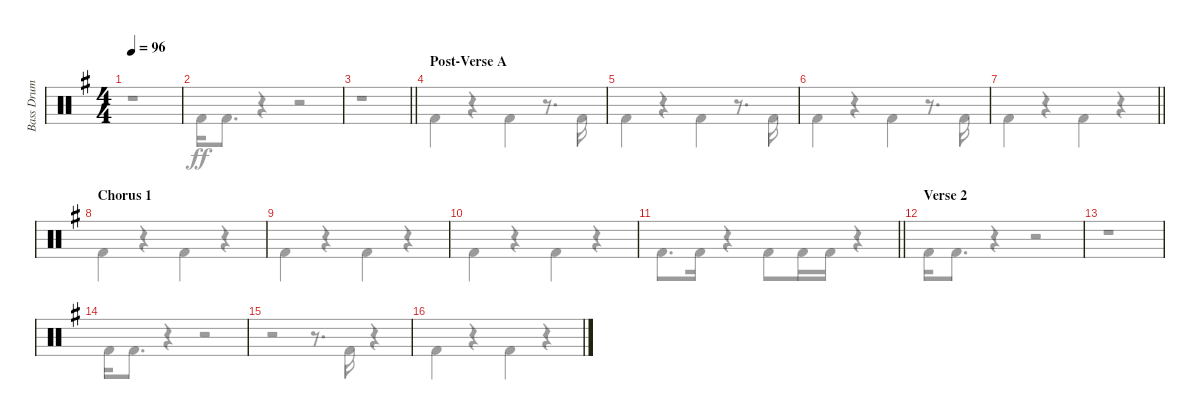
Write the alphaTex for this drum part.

\track ("Bass Drum" "Bass Drum") {instrument percussion}
\staff {score}
\articulation defaults
\voice
\ts (4 4)
\tempo 96
\clef neutral
\ks g
|
|
\barLineRight lightlight
|
\section ("" "Post-Verse A")
|
|
|
\barLineRight lightlight
|
\section ("" "Chorus 1")
|
|
|
\barLineRight lightlight
|
\section ("" "Verse 2")
|
|
|
|
\voice
\clef neutral
\ks g
r.1{dy ff} |
"Kick (hit) 2".16 "Kick (hit) 2".8{d} r.4 r.2 |
\barLineRight lightlight
r.1 |
"Kick (hit) 2".4 r.4 "Kick (hit) 2".4 r.8{d} "Kick (hit) 2".16 |
"Kick (hit) 2".4 r.4 "Kick (hit) 2".4 r.8{d} "Kick (hit) 2".16 |
"Kick (hit) 2".4 r.4 "Kick (hit) 2".4 r.8{d} "Kick (hit) 2".16 |
\barLineRight lightlight "Kick (hit) 2".4
r.4 "Kick (hit) 2".4 r.4 |
"Kick (hit) 2".4 r.4 "Kick (hit) 2".4 r.4 |
"Kick (hit) 2".4 r.4 "Kick (hit) 2".4 r.4 |
"Kick (hit) 2".4 r.4 "Kick (hit) 2".4 r.4 |
\barLineRight lightlight "Kick (hit) 2".8{d} "Kick (hit) 2".16
r.4 "Kick (hit) 2".8 "Kick (hit) 2".16 "Kick (hit) 2".16 r.4 |
"Kick (hit) 2".16 "Kick (hit) 2".8{d} r.4 r.2 |
r.1 |
"Kick (hit) 2".16 "Kick (hit) 2".8{d} r.4 r.2 |
r.2 r.8{d} "Kick (hit) 2".16 r.4 |
"Kick (hit) 2".4 r.4 "Kick (hit) 2".4 r.4
